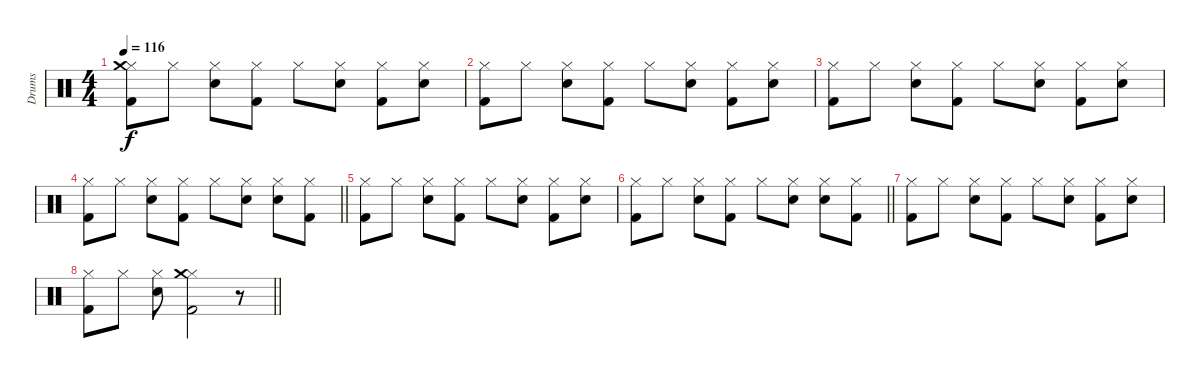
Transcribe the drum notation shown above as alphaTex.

\track ("Drums" "Drums") {instrument percussion}
\staff {score}
\articulation defaults
\ts (4 4)
\tempo 116
\clef neutral
\ks c
("Hi-Hat (closed)" "Kick (hit) 2" "Crash medium (hit)").8{dy f} "Hi-Hat (closed)".8 ("Hi-Hat (closed)" "Electric Snare (hit)").8 ("Hi-Hat (closed)" "Kick (hit) 2").8 "Hi-Hat (closed)".8 ("Hi-Hat (closed)" "Electric Snare (hit)").8 ("Hi-Hat (closed)" "Kick (hit) 2").8 ("Hi-Hat (closed)" "Electric Snare (hit)").8 |
("Hi-Hat (closed)" "Kick (hit) 2").8 "Hi-Hat (closed)".8 ("Hi-Hat (closed)" "Electric Snare (hit)").8 ("Hi-Hat (closed)" "Kick (hit) 2").8 "Hi-Hat (closed)".8 ("Hi-Hat (closed)" "Electric Snare (hit)").8 ("Hi-Hat (closed)" "Kick (hit) 2").8 ("Hi-Hat (closed)" "Electric Snare (hit)").8 |
("Hi-Hat (closed)" "Kick (hit) 2").8 "Hi-Hat (closed)".8 ("Hi-Hat (closed)" "Electric Snare (hit)").8 ("Hi-Hat (closed)" "Kick (hit) 2").8 "Hi-Hat (closed)".8 ("Hi-Hat (closed)" "Electric Snare (hit)").8 ("Hi-Hat (closed)" "Kick (hit) 2").8 ("Hi-Hat (closed)" "Electric Snare (hit)").8 |
\barLineRight lightlight
("Hi-Hat (closed)" "Kick (hit) 2").8 "Hi-Hat (closed)".8 ("Hi-Hat (closed)" "Electric Snare (hit)").8 ("Hi-Hat (closed)" "Kick (hit) 2").8 "Hi-Hat (closed)".8 ("Hi-Hat (closed)" "Electric Snare (hit)").8 ("Hi-Hat (closed)" "Electric Snare (hit)").8 ("Hi-Hat (closed)" "Kick (hit) 2").8 |
("Hi-Hat (closed)" "Kick (hit) 2").8 "Hi-Hat (closed)".8 ("Hi-Hat (closed)" "Electric Snare (hit)").8 ("Hi-Hat (closed)" "Kick (hit) 2").8 "Hi-Hat (closed)".8 ("Hi-Hat (closed)" "Electric Snare (hit)").8 ("Hi-Hat (closed)" "Kick (hit) 2").8 ("Hi-Hat (closed)" "Electric Snare (hit)").8 |
\barLineRight lightlight
("Hi-Hat (closed)" "Kick (hit) 2").8 "Hi-Hat (closed)".8 ("Hi-Hat (closed)" "Electric Snare (hit)").8 ("Hi-Hat (closed)" "Kick (hit) 2").8 "Hi-Hat (closed)".8 ("Hi-Hat (closed)" "Electric Snare (hit)").8 ("Hi-Hat (closed)" "Electric Snare (hit)").8 ("Hi-Hat (closed)" "Kick (hit) 2").8 |
("Hi-Hat (closed)" "Kick (hit) 2").8 "Hi-Hat (closed)".8 ("Hi-Hat (closed)" "Electric Snare (hit)").8 ("Hi-Hat (closed)" "Kick (hit) 2").8 "Hi-Hat (closed)".8 ("Hi-Hat (closed)" "Electric Snare (hit)").8 ("Hi-Hat (closed)" "Kick (hit) 2").8 ("Hi-Hat (closed)" "Electric Snare (hit)").8 |
\barLineRight lightlight
("Hi-Hat (closed)" "Kick (hit) 2").8 "Hi-Hat (closed)".8 ("Hi-Hat (closed)" "Electric Snare (hit)").8 ("Hi-Hat (closed)" "Kick (hit) 2" "Crash medium (hit)").2 r.8
